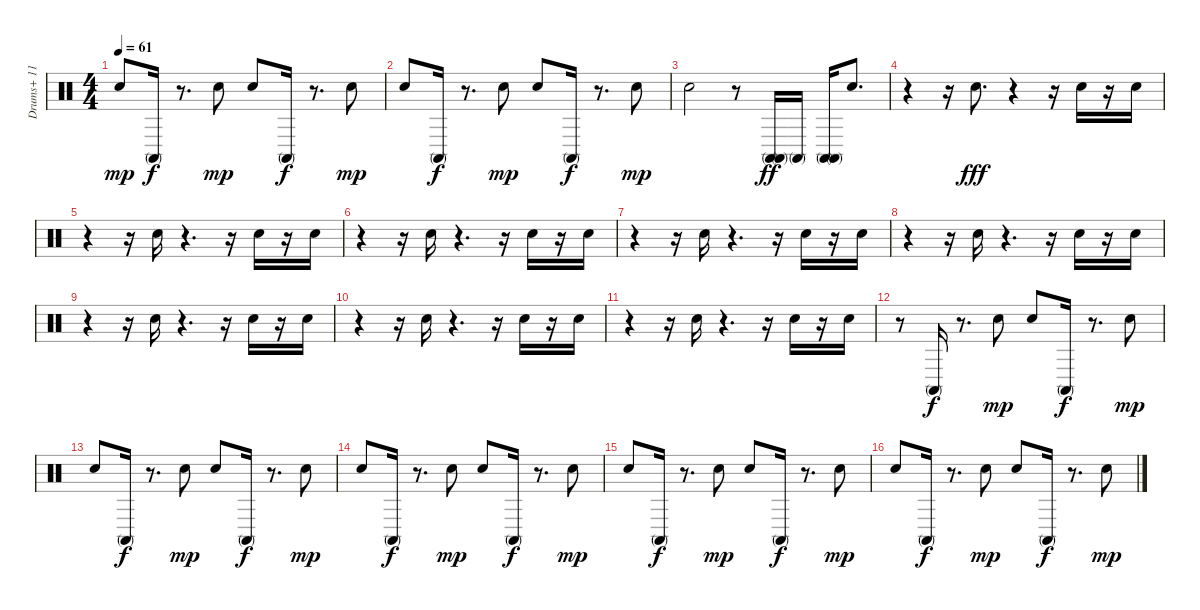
\track ("Drums+ 11" "Drums+ 11") {instrument percussion}
\staff {score}
\articulation defaults
\ts (4 4)
\tempo 61
\clef neutral
\ks c "Hand Clap (hit)".8{dy mp} "Conga high (mute)".16{dy f}
r.8{d} "Hand Clap (hit)".8{dy mp} "Hand Clap (hit)".8 "Conga high (mute)".16{dy f} r.8{d} "Hand Clap (hit)".8{dy mp} |
"Hand Clap (hit)".8 "Conga high (mute)".16{dy f} r.8{d} "Hand Clap (hit)".8{dy mp} "Hand Clap (hit)".8 "Conga high (mute)".16{dy f} r.8{d} "Hand Clap (hit)".8{dy mp} |
"Hand Clap (hit)".2 r.8 ("Conga high (mute)" "Conga high (mute)").16{dy ff} "Conga high (mute)".16 ("Conga high (mute)" "Conga high (mute)").16 "Hand Clap (hit)".8{d} |
r.4 r.16 "Hand Clap (hit)".8{d dy fff} r.4 r.16 "Hand Clap (hit)".16 r.16 "Hand Clap (hit)".16 |
r.4 r.16 "Hand Clap (hit)".16 r.4{d} r.16 "Hand Clap (hit)".16 r.16 "Hand Clap (hit)".16 |
r.4 r.16 "Hand Clap (hit)".16 r.4{d} r.16 "Hand Clap (hit)".16 r.16 "Hand Clap (hit)".16 |
r.4 r.16 "Hand Clap (hit)".16 r.4{d} r.16 "Hand Clap (hit)".16 r.16 "Hand Clap (hit)".16 |
r.4 r.16 "Hand Clap (hit)".16 r.4{d} r.16 "Hand Clap (hit)".16 r.16 "Hand Clap (hit)".16 |
r.4 r.16 "Hand Clap (hit)".16 r.4{d} r.16 "Hand Clap (hit)".16 r.16 "Hand Clap (hit)".16 |
r.4 r.16 "Hand Clap (hit)".16 r.4{d} r.16 "Hand Clap (hit)".16 r.16 "Hand Clap (hit)".16 |
r.4 r.16 "Hand Clap (hit)".16 r.4{d} r.16 "Hand Clap (hit)".16 r.16 "Hand Clap (hit)".16 |
r.8 "Conga high (mute)".16{dy f} r.8{d} "Hand Clap (hit)".8{dy mp} "Hand Clap (hit)".8 "Conga high (mute)".16{dy f} r.8{d} "Hand Clap (hit)".8{dy mp} |
"Hand Clap (hit)".8 "Conga high (mute)".16{dy f} r.8{d} "Hand Clap (hit)".8{dy mp} "Hand Clap (hit)".8 "Conga high (mute)".16{dy f} r.8{d} "Hand Clap (hit)".8{dy mp} |
"Hand Clap (hit)".8 "Conga high (mute)".16{dy f} r.8{d} "Hand Clap (hit)".8{dy mp} "Hand Clap (hit)".8 "Conga high (mute)".16{dy f} r.8{d} "Hand Clap (hit)".8{dy mp} |
"Hand Clap (hit)".8 "Conga high (mute)".16{dy f} r.8{d} "Hand Clap (hit)".8{dy mp} "Hand Clap (hit)".8 "Conga high (mute)".16{dy f} r.8{d} "Hand Clap (hit)".8{dy mp} |
"Hand Clap (hit)".8 "Conga high (mute)".16{dy f} r.8{d} "Hand Clap (hit)".8{dy mp} "Hand Clap (hit)".8 "Conga high (mute)".16{dy f} r.8{d} "Hand Clap (hit)".8{dy mp}
